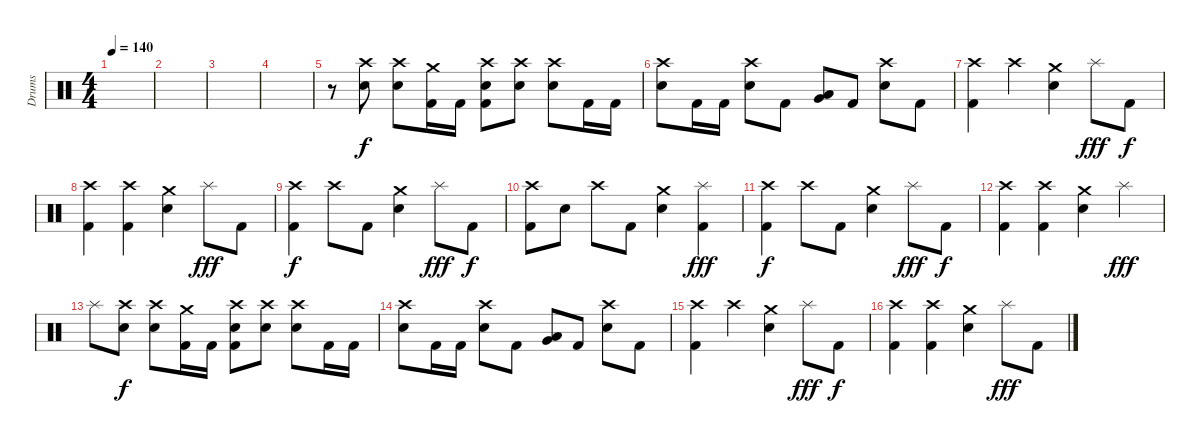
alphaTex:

\track ("Drums" "Drums") {instrument percussion}
\staff {score}
\articulation defaults
\ts (4 4)
\tempo 140
\clef neutral
\ks c
|
|
|
|
r.8 ("Crash high (hit)" "Electric Snare (hit)").8{dy f} ("Crash high (hit)" "Electric Snare (hit)").8 ("Crash medium (hit)" "Kick (hit) 2").16 "Kick (hit) 2".16 ("Crash high (hit)" "Electric Snare (hit)" "Kick (hit) 2").8 ("Crash high (hit)" "Electric Snare (hit)").8 ("Crash high (hit)" "Electric Snare (hit)").8 "Kick (hit) 2".16 "Kick (hit) 2".16 |
("Crash high (hit)" "Electric Snare (hit)").8 "Kick (hit) 2".16 "Kick (hit) 2".16 ("Crash high (hit)" "Electric Snare (hit)").8 "Kick (hit) 2".8 ("Low Floor Tom (hit)" "Very Low Tom (hit)").8 "Kick (hit) 2".8 ("Crash high (hit)" "Electric Snare (hit)").8 "Kick (hit) 2".8 |
("Crash high (hit)" "Kick (hit) 2").4 "Crash high (hit)".4 ("Crash medium (hit)" "Electric Snare (hit)").4 "Splash (hit)".8{dy fff} "Kick (hit) 2".8{dy f} |
("Crash high (hit)" "Kick (hit) 2").4 ("Crash high (hit)" "Kick (hit) 2").4 ("Crash medium (hit)" "Electric Snare (hit)").4 "Splash (hit)".8{dy fff} "Kick (hit) 2".8 |
("Crash high (hit)" "Kick (hit) 2").4{dy f} "Crash high (hit)".8 "Kick (hit) 2".8 ("Crash medium (hit)" "Electric Snare (hit)").4 "Splash (hit)".8{dy fff} "Kick (hit) 2".8{dy f} |
("Crash high (hit)" "Kick (hit) 2").8 "Electric Snare (hit)".8 "Crash high (hit)".8 "Kick (hit) 2".8 ("Crash medium (hit)" "Electric Snare (hit)").4 ("Splash (hit)" "Kick (hit) 2").4{dy fff} |
("Crash high (hit)" "Kick (hit) 2").4{dy f} "Crash high (hit)".8 "Kick (hit) 2".8 ("Crash medium (hit)" "Electric Snare (hit)").4 "Splash (hit)".8{dy fff} "Kick (hit) 2".8{dy f} |
("Crash high (hit)" "Kick (hit) 2").4 ("Crash high (hit)" "Kick (hit) 2").4 ("Crash medium (hit)" "Electric Snare (hit)").4 "Splash (hit)".4{dy fff} |
"Splash (hit)".8 ("Crash high (hit)" "Electric Snare (hit)").8{dy f} ("Crash high (hit)" "Electric Snare (hit)").8 ("Crash medium (hit)" "Kick (hit) 2").16 "Kick (hit) 2".16 ("Crash high (hit)" "Electric Snare (hit)" "Kick (hit) 2").8 ("Crash high (hit)" "Electric Snare (hit)").8 ("Crash high (hit)" "Electric Snare (hit)").8 "Kick (hit) 2".16 "Kick (hit) 2".16 |
("Crash high (hit)" "Electric Snare (hit)").8 "Kick (hit) 2".16 "Kick (hit) 2".16 ("Crash high (hit)" "Electric Snare (hit)").8 "Kick (hit) 2".8 ("Low Floor Tom (hit)" "Very Low Tom (hit)").8 "Kick (hit) 2".8 ("Crash high (hit)" "Electric Snare (hit)").8 "Kick (hit) 2".8 |
("Crash high (hit)" "Kick (hit) 2").4 "Crash high (hit)".4 ("Crash medium (hit)" "Electric Snare (hit)").4 "Splash (hit)".8{dy fff} "Kick (hit) 2".8{dy f} |
("Crash high (hit)" "Kick (hit) 2").4 ("Crash high (hit)" "Kick (hit) 2").4 ("Crash medium (hit)" "Electric Snare (hit)").4 "Splash (hit)".8{dy fff} "Kick (hit) 2".8
